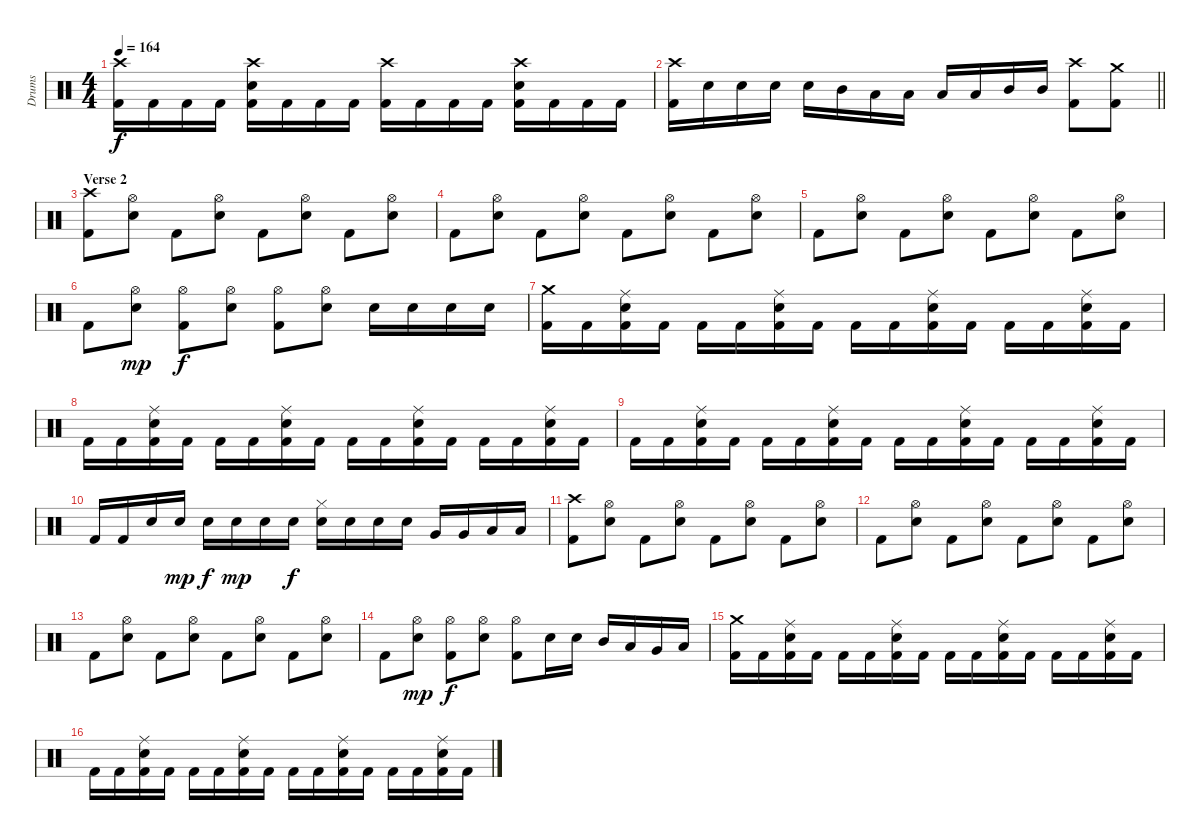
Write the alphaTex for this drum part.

\track ("Drums" "Drums") {instrument percussion}
\staff {score}
\articulation defaults
\ts (4 4)
\tempo 164
\clef neutral
\ks c
("Crash high (hit)" "Kick (hit) 2").16{dy f} "Kick (hit) 2".16 "Kick (hit) 2".16 "Kick (hit) 2".16 ("Crash high (hit)" "Electric Snare (hit)" "Kick (hit) 2").16 "Kick (hit) 2".16 "Kick (hit) 2".16 "Kick (hit) 2".16 ("Crash high (hit)" "Kick (hit) 2").16 "Kick (hit) 2".16 "Kick (hit) 2".16 "Kick (hit) 2".16 ("Crash high (hit)" "Electric Snare (hit)" "Kick (hit) 2").16 "Kick (hit) 2".16 "Kick (hit) 2".16 "Kick (hit) 2".16 |
\barLineRight lightlight
("Crash high (hit)" "Kick (hit) 2").16 "Electric Snare (hit)".16 "Electric Snare (hit)".16 "Electric Snare (hit)".16 "Electric Snare (hit)".16 "Mid Tom (hit)".16 "Low Tom (hit)".16 "Low Tom (hit)".16 "Low Tom (hit)".16 "Low Tom (hit)".16 "Mid Tom (hit)".16 "Mid Tom (hit)".16 ("Crash high (hit)" "Kick (hit) 2").8 ("Crash medium (hit)" "Kick (hit) 2").8 |
\section ("" "Verse 2")
("Crash high (hit)" "Kick (hit) 2").8 ("Hi-Hat (open)" "Electric Snare (hit)").8 "Kick (hit) 2".8 ("Hi-Hat (open)" "Electric Snare (hit)").8 "Kick (hit) 2".8 ("Hi-Hat (open)" "Electric Snare (hit)").8 "Kick (hit) 2".8 ("Hi-Hat (open)" "Electric Snare (hit)").8 |
"Kick (hit) 2".8 ("Hi-Hat (open)" "Electric Snare (hit)").8 "Kick (hit) 2".8 ("Hi-Hat (open)" "Electric Snare (hit)").8 "Kick (hit) 2".8 ("Hi-Hat (open)" "Electric Snare (hit)").8 "Kick (hit) 2".8 ("Hi-Hat (open)" "Electric Snare (hit)").8 |
"Kick (hit) 2".8 ("Hi-Hat (open)" "Electric Snare (hit)").8 "Kick (hit) 2".8 ("Hi-Hat (open)" "Electric Snare (hit)").8 "Kick (hit) 2".8 ("Hi-Hat (open)" "Electric Snare (hit)").8 "Kick (hit) 2".8 ("Hi-Hat (open)" "Electric Snare (hit)").8 |
"Kick (hit) 2".8 ("Hi-Hat (open)" "Electric Snare (hit)").8{dy mp} ("Hi-Hat (open)" "Kick (hit) 2").8{dy f} ("Hi-Hat (open)" "Electric Snare (hit)").8 ("Hi-Hat (open)" "Kick (hit) 2").8 ("Hi-Hat (open)" "Electric Snare (hit)").8 "Electric Snare (hit)".16 "Electric Snare (hit)".16 "Electric Snare (hit)".16 "Electric Snare (hit)".16 |
("Crash medium (hit)" "Kick (hit) 2").16 "Kick (hit) 2".16 ("Ride (middle)" "Electric Snare (hit)" "Kick (hit) 2").16 "Kick (hit) 2".16 "Kick (hit) 2".16 "Kick (hit) 2".16 ("Ride (middle)" "Electric Snare (hit)" "Kick (hit) 2").16 "Kick (hit) 2".16 "Kick (hit) 2".16 "Kick (hit) 2".16 ("Ride (middle)" "Electric Snare (hit)" "Kick (hit) 2").16 "Kick (hit) 2".16 "Kick (hit) 2".16 "Kick (hit) 2".16 ("Ride (middle)" "Electric Snare (hit)" "Kick (hit) 2").16 "Kick (hit) 2".16 |
"Kick (hit) 2".16 "Kick (hit) 2".16 ("Ride (middle)" "Electric Snare (hit)" "Kick (hit) 2").16 "Kick (hit) 2".16 "Kick (hit) 2".16 "Kick (hit) 2".16 ("Ride (middle)" "Electric Snare (hit)" "Kick (hit) 2").16 "Kick (hit) 2".16 "Kick (hit) 2".16 "Kick (hit) 2".16 ("Ride (middle)" "Electric Snare (hit)" "Kick (hit) 2").16 "Kick (hit) 2".16 "Kick (hit) 2".16 "Kick (hit) 2".16 ("Ride (middle)" "Electric Snare (hit)" "Kick (hit) 2").16 "Kick (hit) 2".16 |
"Kick (hit) 2".16 "Kick (hit) 2".16 ("Ride (middle)" "Electric Snare (hit)" "Kick (hit) 2").16 "Kick (hit) 2".16 "Kick (hit) 2".16 "Kick (hit) 2".16 ("Ride (middle)" "Electric Snare (hit)" "Kick (hit) 2").16 "Kick (hit) 2".16 "Kick (hit) 2".16 "Kick (hit) 2".16 ("Ride (middle)" "Electric Snare (hit)" "Kick (hit) 2").16 "Kick (hit) 2".16 "Kick (hit) 2".16 "Kick (hit) 2".16 ("Ride (middle)" "Electric Snare (hit)" "Kick (hit) 2").16 "Kick (hit) 2".16 |
"Kick (hit) 2".16 "Kick (hit) 2".16 "Electric Snare (hit)".16 "Electric Snare (hit)".16{dy mp} "Electric Snare (hit)".16{dy f} "Electric Snare (hit)".16{dy mp} "Electric Snare (hit)".16 "Electric Snare (hit)".16{dy f} ("Hi-Hat (closed)" "Electric Snare (hit)").16 "Electric Snare (hit)".16 "Electric Snare (hit)".16 "Electric Snare (hit)".16 "Very Low Tom (hit)".16 "Very Low Tom (hit)".16 "Low Floor Tom (hit)".16 "Low Floor Tom (hit)".16 |
("Crash high (hit)" "Kick (hit) 2").8 ("Hi-Hat (open)" "Electric Snare (hit)").8 "Kick (hit) 2".8 ("Hi-Hat (open)" "Electric Snare (hit)").8 "Kick (hit) 2".8 ("Hi-Hat (open)" "Electric Snare (hit)").8 "Kick (hit) 2".8 ("Hi-Hat (open)" "Electric Snare (hit)").8 |
"Kick (hit) 2".8 ("Hi-Hat (open)" "Electric Snare (hit)").8 "Kick (hit) 2".8 ("Hi-Hat (open)" "Electric Snare (hit)").8 "Kick (hit) 2".8 ("Hi-Hat (open)" "Electric Snare (hit)").8 "Kick (hit) 2".8 ("Hi-Hat (open)" "Electric Snare (hit)").8 |
"Kick (hit) 2".8 ("Hi-Hat (open)" "Electric Snare (hit)").8 "Kick (hit) 2".8 ("Hi-Hat (open)" "Electric Snare (hit)").8 "Kick (hit) 2".8 ("Hi-Hat (open)" "Electric Snare (hit)").8 "Kick (hit) 2".8 ("Hi-Hat (open)" "Electric Snare (hit)").8 |
"Kick (hit) 2".8 ("Hi-Hat (open)" "Electric Snare (hit)").8{dy mp} ("Hi-Hat (open)" "Kick (hit) 2").8{dy f} ("Hi-Hat (open)" "Electric Snare (hit)").8 ("Hi-Hat (open)" "Kick (hit) 2").8 "Electric Snare (hit)".16 "Electric Snare (hit)".16 "Mid Tom (hit)".16 "Low Tom (hit)".16 "Very Low Tom (hit)".16 "Low Floor Tom (hit)".16 |
("Crash medium (hit)" "Kick (hit) 2").16 "Kick (hit) 2".16 ("Ride (middle)" "Electric Snare (hit)" "Kick (hit) 2").16 "Kick (hit) 2".16 "Kick (hit) 2".16 "Kick (hit) 2".16 ("Ride (middle)" "Electric Snare (hit)" "Kick (hit) 2").16 "Kick (hit) 2".16 "Kick (hit) 2".16 "Kick (hit) 2".16 ("Ride (middle)" "Electric Snare (hit)" "Kick (hit) 2").16 "Kick (hit) 2".16 "Kick (hit) 2".16 "Kick (hit) 2".16 ("Ride (middle)" "Electric Snare (hit)" "Kick (hit) 2").16 "Kick (hit) 2".16 |
"Kick (hit) 2".16 "Kick (hit) 2".16 ("Ride (middle)" "Electric Snare (hit)" "Kick (hit) 2").16 "Kick (hit) 2".16 "Kick (hit) 2".16 "Kick (hit) 2".16 ("Ride (middle)" "Electric Snare (hit)" "Kick (hit) 2").16 "Kick (hit) 2".16 "Kick (hit) 2".16 "Kick (hit) 2".16 ("Ride (middle)" "Electric Snare (hit)" "Kick (hit) 2").16 "Kick (hit) 2".16 "Kick (hit) 2".16 "Kick (hit) 2".16 ("Ride (middle)" "Electric Snare (hit)" "Kick (hit) 2").16 "Kick (hit) 2".16
